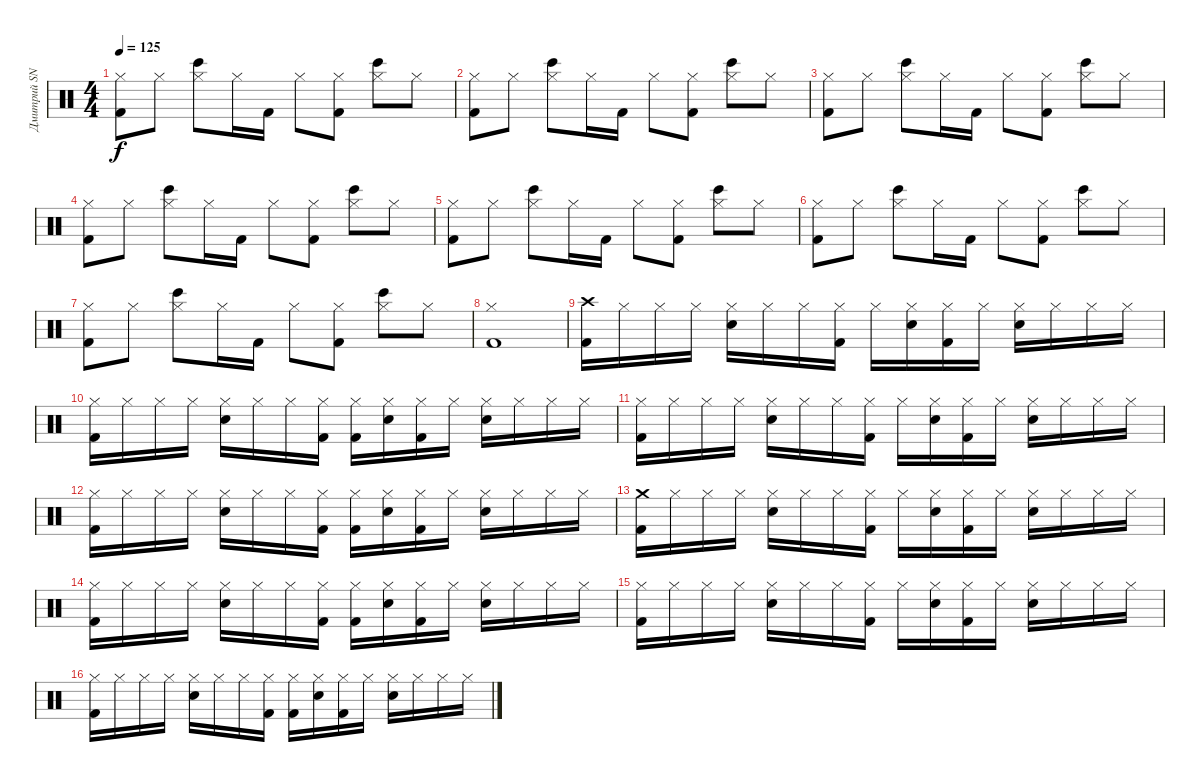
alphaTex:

\track ("Дмитрий SNAKE Хакимов" "Дмитрий SN") {instrument percussion}
\staff {score}
\articulation defaults
\ts (4 4)
\tempo 125
\clef neutral
\ks c
("Hi-Hat (closed)" "Kick (hit) 2").8{dy f} "Hi-Hat (closed)".8 ("Hi-Hat (closed)" "Bongo High (hit)").8 "Hi-Hat (closed)".16 "Kick (hit) 2".16 "Hi-Hat (closed)".8 ("Hi-Hat (closed)" "Kick (hit) 2").8 ("Hi-Hat (closed)" "Bongo High (hit)").8 "Hi-Hat (closed)".8 |
("Hi-Hat (closed)" "Kick (hit) 2").8 "Hi-Hat (closed)".8 ("Hi-Hat (closed)" "Bongo High (hit)").8 "Hi-Hat (closed)".16 "Kick (hit) 2".16 "Hi-Hat (closed)".8 ("Hi-Hat (closed)" "Kick (hit) 2").8 ("Hi-Hat (closed)" "Bongo High (hit)").8 "Hi-Hat (closed)".8 |
("Hi-Hat (closed)" "Kick (hit) 2").8 "Hi-Hat (closed)".8 ("Hi-Hat (closed)" "Bongo High (hit)").8 "Hi-Hat (closed)".16 "Kick (hit) 2".16 "Hi-Hat (closed)".8 ("Hi-Hat (closed)" "Kick (hit) 2").8 ("Hi-Hat (closed)" "Bongo High (hit)").8 "Hi-Hat (closed)".8 |
("Hi-Hat (closed)" "Kick (hit) 2").8 "Hi-Hat (closed)".8 ("Hi-Hat (closed)" "Bongo High (hit)").8 "Hi-Hat (closed)".16 "Kick (hit) 2".16 "Hi-Hat (closed)".8 ("Hi-Hat (closed)" "Kick (hit) 2").8 ("Hi-Hat (closed)" "Bongo High (hit)").8 "Hi-Hat (closed)".8 |
("Hi-Hat (closed)" "Kick (hit) 2").8 "Hi-Hat (closed)".8 ("Hi-Hat (closed)" "Bongo High (hit)").8 "Hi-Hat (closed)".16 "Kick (hit) 2".16 "Hi-Hat (closed)".8 ("Hi-Hat (closed)" "Kick (hit) 2").8 ("Hi-Hat (closed)" "Bongo High (hit)").8 "Hi-Hat (closed)".8 |
("Hi-Hat (closed)" "Kick (hit) 2").8 "Hi-Hat (closed)".8 ("Hi-Hat (closed)" "Bongo High (hit)").8 "Hi-Hat (closed)".16 "Kick (hit) 2".16 "Hi-Hat (closed)".8 ("Hi-Hat (closed)" "Kick (hit) 2").8 ("Hi-Hat (closed)" "Bongo High (hit)").8 "Hi-Hat (closed)".8 |
("Hi-Hat (closed)" "Kick (hit) 2").8 "Hi-Hat (closed)".8 ("Hi-Hat (closed)" "Bongo High (hit)").8 "Hi-Hat (closed)".16 "Kick (hit) 2".16 "Hi-Hat (closed)".8 ("Hi-Hat (closed)" "Kick (hit) 2").8 ("Hi-Hat (closed)" "Bongo High (hit)").8 "Hi-Hat (closed)".8 |
("Hi-Hat (closed)" "Kick (hit) 2").1 |
("Crash high (hit)" "Kick (hit) 2").16 "Hi-Hat (closed)".16 "Hi-Hat (closed)".16 "Hi-Hat (closed)".16 ("Hi-Hat (closed)" "Snare (hit) 2").16 "Hi-Hat (closed)".16 "Hi-Hat (closed)".16 ("Hi-Hat (closed)" "Kick (hit) 2").16 "Hi-Hat (closed)".16 ("Hi-Hat (closed)" "Snare (hit) 2").16 ("Hi-Hat (closed)" "Kick (hit) 2").16 "Hi-Hat (closed)".16 ("Hi-Hat (closed)" "Snare (hit) 2").16 "Hi-Hat (closed)".16 "Hi-Hat (closed)".16 "Hi-Hat (closed)".16 |
("Hi-Hat (closed)" "Kick (hit) 2").16 "Hi-Hat (closed)".16 "Hi-Hat (closed)".16 "Hi-Hat (closed)".16 ("Hi-Hat (closed)" "Snare (hit) 2").16 "Hi-Hat (closed)".16 "Hi-Hat (closed)".16 ("Hi-Hat (closed)" "Kick (hit) 2").16 ("Hi-Hat (closed)" "Kick (hit) 2").16 ("Hi-Hat (closed)" "Snare (hit) 2").16 ("Hi-Hat (closed)" "Kick (hit) 2").16 "Hi-Hat (closed)".16 ("Hi-Hat (closed)" "Snare (hit) 2").16 "Hi-Hat (closed)".16 "Hi-Hat (closed)".16 "Hi-Hat (closed)".16 |
("Hi-Hat (closed)" "Kick (hit) 2").16 "Hi-Hat (closed)".16 "Hi-Hat (closed)".16 "Hi-Hat (closed)".16 ("Hi-Hat (closed)" "Snare (hit) 2").16 "Hi-Hat (closed)".16 "Hi-Hat (closed)".16 ("Hi-Hat (closed)" "Kick (hit) 2").16 "Hi-Hat (closed)".16 ("Hi-Hat (closed)" "Snare (hit) 2").16 ("Hi-Hat (closed)" "Kick (hit) 2").16 "Hi-Hat (closed)".16 ("Hi-Hat (closed)" "Snare (hit) 2").16 "Hi-Hat (closed)".16 "Hi-Hat (closed)".16 "Hi-Hat (closed)".16 |
("Hi-Hat (closed)" "Kick (hit) 2").16 "Hi-Hat (closed)".16 "Hi-Hat (closed)".16 "Hi-Hat (closed)".16 ("Hi-Hat (closed)" "Snare (hit) 2").16 "Hi-Hat (closed)".16 "Hi-Hat (closed)".16 ("Hi-Hat (closed)" "Kick (hit) 2").16 ("Hi-Hat (closed)" "Kick (hit) 2").16 ("Hi-Hat (closed)" "Snare (hit) 2").16 ("Hi-Hat (closed)" "Kick (hit) 2").16 "Hi-Hat (closed)".16 ("Hi-Hat (closed)" "Snare (hit) 2").16 "Hi-Hat (closed)".16 "Hi-Hat (closed)".16 "Hi-Hat (closed)".16 |
("Crash medium (hit)" "Kick (hit) 2").16 "Hi-Hat (closed)".16 "Hi-Hat (closed)".16 "Hi-Hat (closed)".16 ("Hi-Hat (closed)" "Snare (hit) 2").16 "Hi-Hat (closed)".16 "Hi-Hat (closed)".16 ("Hi-Hat (closed)" "Kick (hit) 2").16 "Hi-Hat (closed)".16 ("Hi-Hat (closed)" "Snare (hit) 2").16 ("Hi-Hat (closed)" "Kick (hit) 2").16 "Hi-Hat (closed)".16 ("Hi-Hat (closed)" "Snare (hit) 2").16 "Hi-Hat (closed)".16 "Hi-Hat (closed)".16 "Hi-Hat (closed)".16 |
("Hi-Hat (closed)" "Kick (hit) 2").16 "Hi-Hat (closed)".16 "Hi-Hat (closed)".16 "Hi-Hat (closed)".16 ("Hi-Hat (closed)" "Snare (hit) 2").16 "Hi-Hat (closed)".16 "Hi-Hat (closed)".16 ("Hi-Hat (closed)" "Kick (hit) 2").16 ("Hi-Hat (closed)" "Kick (hit) 2").16 ("Hi-Hat (closed)" "Snare (hit) 2").16 ("Hi-Hat (closed)" "Kick (hit) 2").16 "Hi-Hat (closed)".16 ("Hi-Hat (closed)" "Snare (hit) 2").16 "Hi-Hat (closed)".16 "Hi-Hat (closed)".16 "Hi-Hat (closed)".16 |
("Hi-Hat (closed)" "Kick (hit) 2").16 "Hi-Hat (closed)".16 "Hi-Hat (closed)".16 "Hi-Hat (closed)".16 ("Hi-Hat (closed)" "Snare (hit) 2").16 "Hi-Hat (closed)".16 "Hi-Hat (closed)".16 ("Hi-Hat (closed)" "Kick (hit) 2").16 "Hi-Hat (closed)".16 ("Hi-Hat (closed)" "Snare (hit) 2").16 ("Hi-Hat (closed)" "Kick (hit) 2").16 "Hi-Hat (closed)".16 ("Hi-Hat (closed)" "Snare (hit) 2").16 "Hi-Hat (closed)".16 "Hi-Hat (closed)".16 "Hi-Hat (closed)".16 |
("Hi-Hat (closed)" "Kick (hit) 2").16 "Hi-Hat (closed)".16 "Hi-Hat (closed)".16 "Hi-Hat (closed)".16 ("Hi-Hat (closed)" "Snare (hit) 2").16 "Hi-Hat (closed)".16 "Hi-Hat (closed)".16 ("Hi-Hat (closed)" "Kick (hit) 2").16 ("Hi-Hat (closed)" "Kick (hit) 2").16 ("Hi-Hat (closed)" "Snare (hit) 2").16 ("Hi-Hat (closed)" "Kick (hit) 2").16 "Hi-Hat (closed)".16 ("Hi-Hat (closed)" "Snare (hit) 2").16 "Hi-Hat (closed)".16 "Hi-Hat (closed)".16 "Hi-Hat (closed)".16
